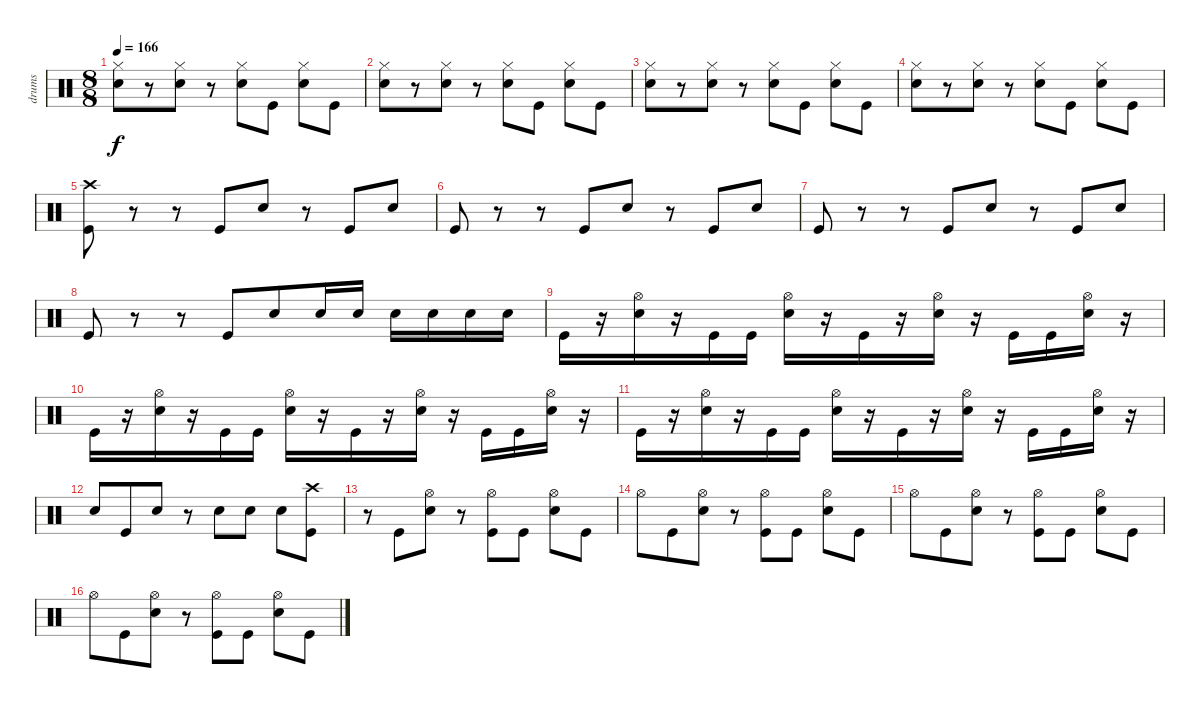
\track ("drums" "drums") {instrument percussion}
\staff {score}
\articulation defaults
\ts (8 8)
\tempo 166
\clef neutral
\ks c
("Hi-Hat (closed)" "Snare (hit) 2").8{dy f} r.8 ("Hi-Hat (closed)" "Snare (hit) 2").8 r.8 ("Hi-Hat (closed)" "Snare (hit) 2").8 "Kick (hit)".8 ("Hi-Hat (closed)" "Snare (hit) 2").8 "Kick (hit)".8 |
("Hi-Hat (closed)" "Snare (hit) 2").8 r.8 ("Hi-Hat (closed)" "Snare (hit) 2").8 r.8 ("Hi-Hat (closed)" "Snare (hit) 2").8 "Kick (hit)".8 ("Hi-Hat (closed)" "Snare (hit) 2").8 "Kick (hit)".8 |
("Hi-Hat (closed)" "Snare (hit) 2").8 r.8 ("Hi-Hat (closed)" "Snare (hit) 2").8 r.8 ("Hi-Hat (closed)" "Snare (hit) 2").8 "Kick (hit)".8 ("Hi-Hat (closed)" "Snare (hit) 2").8 "Kick (hit)".8 |
("Hi-Hat (closed)" "Snare (hit) 2").8 r.8 ("Hi-Hat (closed)" "Snare (hit) 2").8 r.8 ("Hi-Hat (closed)" "Snare (hit) 2").8 "Kick (hit)".8 ("Hi-Hat (closed)" "Snare (hit) 2").8 "Kick (hit)".8 |
("Crash high (hit)" "Kick (hit)").8{volume 6} r.8 r.8 "Kick (hit)".8 "Snare (hit) 2".8 r.8 "Kick (hit)".8 "Snare (hit) 2".8 |
"Kick (hit)".8 r.8 r.8 "Kick (hit)".8 "Snare (hit) 2".8 r.8 "Kick (hit)".8 "Snare (hit) 2".8 |
"Kick (hit)".8 r.8 r.8 "Kick (hit)".8 "Snare (hit) 2".8 r.8 "Kick (hit)".8 "Snare (hit) 2".8 |
"Kick (hit)".8 r.8 r.8 "Kick (hit)".8 "Snare (hit) 2".8 "Snare (hit) 2".16{volume 14} "Snare (hit) 2".16 "Snare (hit) 2".16 "Snare (hit) 2".16 "Snare (hit) 2".16 "Snare (hit) 2".16 |
"Kick (hit)".16 r.16 ("Hi-Hat (open)" "Snare (hit) 2").16 r.16 "Kick (hit)".16 "Kick (hit)".16 ("Hi-Hat (open)" "Snare (hit) 2").16 r.16 "Kick (hit)".16 r.16 ("Hi-Hat (open)" "Snare (hit) 2").16 r.16 "Kick (hit)".16 "Kick (hit)".16 ("Hi-Hat (open)" "Snare (hit) 2").16 r.16 |
"Kick (hit)".16 r.16 ("Hi-Hat (open)" "Snare (hit) 2").16 r.16 "Kick (hit)".16 "Kick (hit)".16 ("Hi-Hat (open)" "Snare (hit) 2").16 r.16 "Kick (hit)".16 r.16 ("Hi-Hat (open)" "Snare (hit) 2").16 r.16 "Kick (hit)".16 "Kick (hit)".16 ("Hi-Hat (open)" "Snare (hit) 2").16 r.16 |
"Kick (hit)".16 r.16 ("Hi-Hat (open)" "Snare (hit) 2").16 r.16 "Kick (hit)".16 "Kick (hit)".16 ("Hi-Hat (open)" "Snare (hit) 2").16 r.16 "Kick (hit)".16 r.16 ("Hi-Hat (open)" "Snare (hit) 2").16 r.16 "Kick (hit)".16 "Kick (hit)".16 ("Hi-Hat (open)" "Snare (hit) 2").16 r.16 |
"Snare (hit) 2".8 "Kick (hit)".8 "Snare (hit) 2".8 r.8 "Snare (hit) 2".8 "Snare (hit) 2".8 "Snare (hit) 2".8 ("Crash high (hit)" "Kick (hit)").8 |
r.8 "Kick (hit)".8 ("Hi-Hat (open)" "Snare (hit) 2").8 r.8 ("Hi-Hat (open)" "Kick (hit)").8 "Kick (hit)".8 ("Hi-Hat (open)" "Snare (hit) 2").8 "Kick (hit)".8 |
"Hi-Hat (open)".8 "Kick (hit)".8 ("Hi-Hat (open)" "Snare (hit) 2").8 r.8 ("Hi-Hat (open)" "Kick (hit)").8 "Kick (hit)".8 ("Hi-Hat (open)" "Snare (hit) 2").8 "Kick (hit)".8 |
"Hi-Hat (open)".8 "Kick (hit)".8 ("Hi-Hat (open)" "Snare (hit) 2").8 r.8 ("Hi-Hat (open)" "Kick (hit)").8 "Kick (hit)".8 ("Hi-Hat (open)" "Snare (hit) 2").8 "Kick (hit)".8 |
"Hi-Hat (open)".8 "Kick (hit)".8 ("Hi-Hat (open)" "Snare (hit) 2").8 r.8 ("Hi-Hat (open)" "Kick (hit)").8 "Kick (hit)".8 ("Hi-Hat (open)" "Snare (hit) 2").8 "Kick (hit)".8
